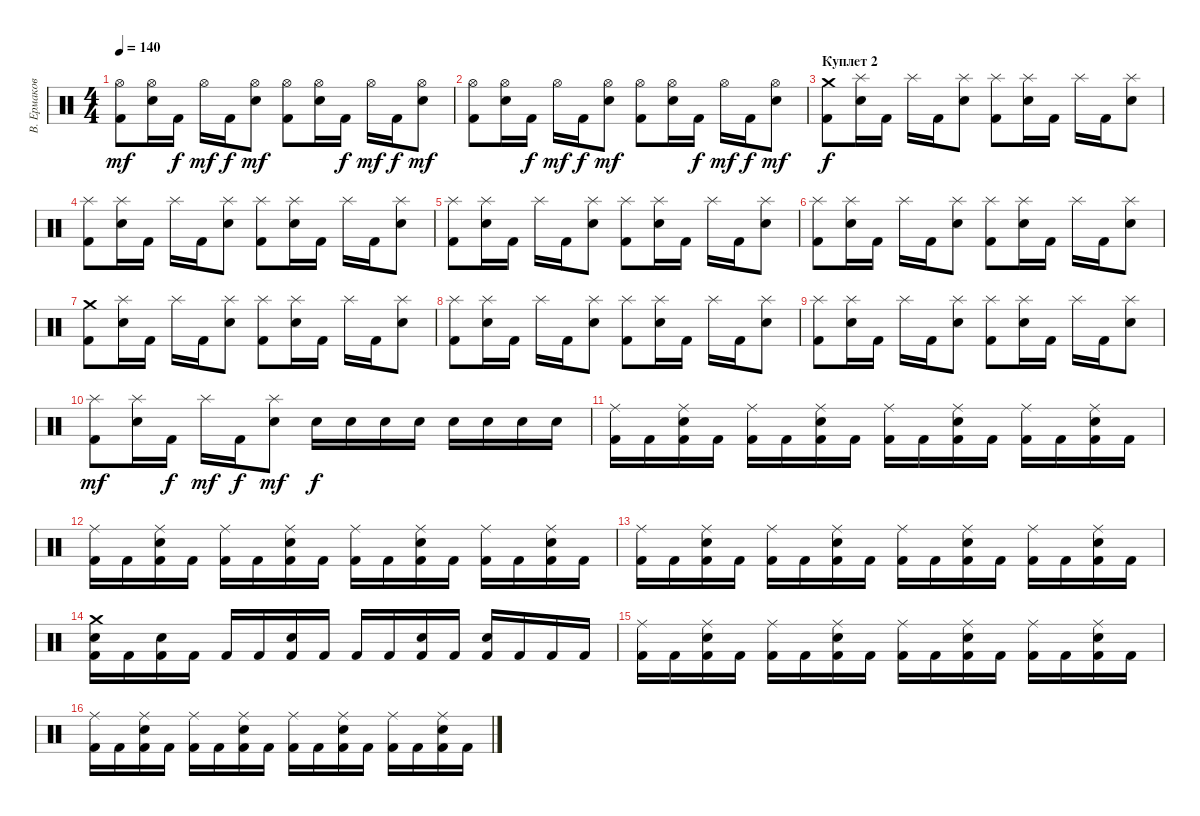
\track ("В. Ермаков" "В. Ермаков") {instrument percussion}
\staff {score}
\articulation defaults
\ts (4 4)
\tempo 140
\clef neutral
\ks c
("Hi-Hat (open)" "Kick (hit) 2").8{dy mf} ("Hi-Hat (open)" "Electric Snare (hit)").16 "Kick (hit) 2".16{dy f} "Hi-Hat (open)".16{dy mf} "Kick (hit) 2".16{dy f} ("Hi-Hat (open)" "Electric Snare (hit)").8{dy mf} ("Hi-Hat (open)" "Kick (hit) 2").8 ("Hi-Hat (open)" "Electric Snare (hit)").16 "Kick (hit) 2".16{dy f} "Hi-Hat (open)".16{dy mf} "Kick (hit) 2".16{dy f} ("Hi-Hat (open)" "Electric Snare (hit)").8{dy mf} |
("Hi-Hat (open)" "Kick (hit) 2").8 ("Hi-Hat (open)" "Electric Snare (hit)").16 "Kick (hit) 2".16{dy f} "Hi-Hat (open)".16{dy mf} "Kick (hit) 2".16{dy f} ("Hi-Hat (open)" "Electric Snare (hit)").8{dy mf} ("Hi-Hat (open)" "Kick (hit) 2").8 ("Hi-Hat (open)" "Electric Snare (hit)").16 "Kick (hit) 2".16{dy f} "Hi-Hat (open)".16{dy mf} "Kick (hit) 2".16{dy f} ("Hi-Hat (open)" "Electric Snare (hit)").8{dy mf} |
\section ("" "Куплет 2")
("Crash medium (hit)" "Kick (hit) 2").8{dy f} ("Splash (hit)" "Electric Snare (hit)").16 "Kick (hit) 2".16 "Splash (hit)".16 "Kick (hit) 2".16 ("Splash (hit)" "Electric Snare (hit)").8 ("Splash (hit)" "Kick (hit) 2").8 ("Splash (hit)" "Electric Snare (hit)").16 "Kick (hit) 2".16 "Splash (hit)".16 "Kick (hit) 2".16 ("Splash (hit)" "Electric Snare (hit)").8 |
("Splash (hit)" "Kick (hit) 2").8 ("Splash (hit)" "Electric Snare (hit)").16 "Kick (hit) 2".16 "Splash (hit)".16 "Kick (hit) 2".16 ("Splash (hit)" "Electric Snare (hit)").8 ("Splash (hit)" "Kick (hit) 2").8 ("Splash (hit)" "Electric Snare (hit)").16 "Kick (hit) 2".16 "Splash (hit)".16 "Kick (hit) 2".16 ("Splash (hit)" "Electric Snare (hit)").8 |
("Splash (hit)" "Kick (hit) 2").8 ("Splash (hit)" "Electric Snare (hit)").16 "Kick (hit) 2".16 "Splash (hit)".16 "Kick (hit) 2".16 ("Splash (hit)" "Electric Snare (hit)").8 ("Splash (hit)" "Kick (hit) 2").8 ("Splash (hit)" "Electric Snare (hit)").16 "Kick (hit) 2".16 "Splash (hit)".16 "Kick (hit) 2".16 ("Splash (hit)" "Electric Snare (hit)").8 |
("Splash (hit)" "Kick (hit) 2").8 ("Splash (hit)" "Electric Snare (hit)").16 "Kick (hit) 2".16 "Splash (hit)".16 "Kick (hit) 2".16 ("Splash (hit)" "Electric Snare (hit)").8 ("Splash (hit)" "Kick (hit) 2").8 ("Splash (hit)" "Electric Snare (hit)").16 "Kick (hit) 2".16 "Splash (hit)".16 "Kick (hit) 2".16 ("Splash (hit)" "Electric Snare (hit)").8 |
("Crash medium (hit)" "Kick (hit) 2").8 ("Splash (hit)" "Electric Snare (hit)").16 "Kick (hit) 2".16 "Splash (hit)".16 "Kick (hit) 2".16 ("Splash (hit)" "Electric Snare (hit)").8 ("Splash (hit)" "Kick (hit) 2").8 ("Splash (hit)" "Electric Snare (hit)").16 "Kick (hit) 2".16 "Splash (hit)".16 "Kick (hit) 2".16 ("Splash (hit)" "Electric Snare (hit)").8 |
("Splash (hit)" "Kick (hit) 2").8 ("Splash (hit)" "Electric Snare (hit)").16 "Kick (hit) 2".16 "Splash (hit)".16 "Kick (hit) 2".16 ("Splash (hit)" "Electric Snare (hit)").8 ("Splash (hit)" "Kick (hit) 2").8 ("Splash (hit)" "Electric Snare (hit)").16 "Kick (hit) 2".16 "Splash (hit)".16 "Kick (hit) 2".16 ("Splash (hit)" "Electric Snare (hit)").8 |
("Splash (hit)" "Kick (hit) 2").8 ("Splash (hit)" "Electric Snare (hit)").16 "Kick (hit) 2".16 "Splash (hit)".16 "Kick (hit) 2".16 ("Splash (hit)" "Electric Snare (hit)").8 ("Splash (hit)" "Kick (hit) 2").8 ("Splash (hit)" "Electric Snare (hit)").16 "Kick (hit) 2".16 "Splash (hit)".16 "Kick (hit) 2".16 ("Splash (hit)" "Electric Snare (hit)").8 |
("Splash (hit)" "Kick (hit) 2").8{dy mf} ("Splash (hit)" "Electric Snare (hit)").16 "Kick (hit) 2".16{dy f} "Splash (hit)".16{dy mf} "Kick (hit) 2".16{dy f} ("Splash (hit)" "Electric Snare (hit)").8{dy mf} "Electric Snare (hit)".16{dy f} "Electric Snare (hit)".16 "Electric Snare (hit)".16 "Electric Snare (hit)".16 "Electric Snare (hit)".16 "Electric Snare (hit)".16 "Electric Snare (hit)".16 "Electric Snare (hit)".16 |
("Kick (hit) 2" "Ride (middle)").16 "Kick (hit) 2".16 ("Kick (hit) 2" "Electric Snare (hit)" "Ride (middle)").16 "Kick (hit) 2".16 ("Kick (hit) 2" "Ride (middle)").16 "Kick (hit) 2".16 ("Kick (hit) 2" "Electric Snare (hit)" "Ride (middle)").16 "Kick (hit) 2".16 ("Kick (hit) 2" "Ride (middle)").16 "Kick (hit) 2".16 ("Kick (hit) 2" "Electric Snare (hit)" "Ride (middle)").16 "Kick (hit) 2".16 ("Kick (hit) 2" "Ride (middle)").16 "Kick (hit) 2".16 ("Kick (hit) 2" "Electric Snare (hit)" "Ride (middle)").16 "Kick (hit) 2".16 |
("Kick (hit) 2" "Ride (middle)").16 "Kick (hit) 2".16 ("Kick (hit) 2" "Electric Snare (hit)" "Ride (middle)").16 "Kick (hit) 2".16 ("Kick (hit) 2" "Ride (middle)").16 "Kick (hit) 2".16 ("Kick (hit) 2" "Electric Snare (hit)" "Ride (middle)").16 "Kick (hit) 2".16 ("Kick (hit) 2" "Ride (middle)").16 "Kick (hit) 2".16 ("Kick (hit) 2" "Electric Snare (hit)" "Ride (middle)").16 "Kick (hit) 2".16 ("Kick (hit) 2" "Ride (middle)").16 "Kick (hit) 2".16 ("Kick (hit) 2" "Electric Snare (hit)" "Ride (middle)").16 "Kick (hit) 2".16 |
("Kick (hit) 2" "Ride (middle)").16 "Kick (hit) 2".16 ("Kick (hit) 2" "Electric Snare (hit)" "Ride (middle)").16 "Kick (hit) 2".16 ("Kick (hit) 2" "Ride (middle)").16 "Kick (hit) 2".16 ("Kick (hit) 2" "Electric Snare (hit)" "Ride (middle)").16 "Kick (hit) 2".16 ("Kick (hit) 2" "Ride (middle)").16 "Kick (hit) 2".16 ("Kick (hit) 2" "Electric Snare (hit)" "Ride (middle)").16 "Kick (hit) 2".16 ("Kick (hit) 2" "Ride (middle)").16 "Kick (hit) 2".16 ("Kick (hit) 2" "Electric Snare (hit)" "Ride (middle)").16 "Kick (hit) 2".16 |
("Kick (hit) 2" "Electric Snare (hit)" "Crash medium (hit)").16 "Kick (hit) 2".16 ("Kick (hit) 2" "Electric Snare (hit)").16 "Kick (hit) 2".16 "Kick (hit) 2".16 "Kick (hit) 2".16 ("Kick (hit) 2" "Electric Snare (hit)").16 "Kick (hit) 2".16 "Kick (hit) 2".16 "Kick (hit) 2".16 ("Kick (hit) 2" "Electric Snare (hit)").16 "Kick (hit) 2".16 ("Kick (hit) 2" "Electric Snare (hit)").16 "Kick (hit) 2".16 "Kick (hit) 2".16 "Kick (hit) 2".16 |
("Kick (hit) 2" "Ride (middle)").16 "Kick (hit) 2".16 ("Kick (hit) 2" "Electric Snare (hit)" "Ride (middle)").16 "Kick (hit) 2".16 ("Kick (hit) 2" "Ride (middle)").16 "Kick (hit) 2".16 ("Kick (hit) 2" "Electric Snare (hit)" "Ride (middle)").16 "Kick (hit) 2".16 ("Kick (hit) 2" "Ride (middle)").16 "Kick (hit) 2".16 ("Kick (hit) 2" "Electric Snare (hit)" "Ride (middle)").16 "Kick (hit) 2".16 ("Kick (hit) 2" "Ride (middle)").16 "Kick (hit) 2".16 ("Kick (hit) 2" "Electric Snare (hit)" "Ride (middle)").16 "Kick (hit) 2".16 |
("Kick (hit) 2" "Ride (middle)").16 "Kick (hit) 2".16 ("Kick (hit) 2" "Electric Snare (hit)" "Ride (middle)").16 "Kick (hit) 2".16 ("Kick (hit) 2" "Ride (middle)").16 "Kick (hit) 2".16 ("Kick (hit) 2" "Electric Snare (hit)" "Ride (middle)").16 "Kick (hit) 2".16 ("Kick (hit) 2" "Ride (middle)").16 "Kick (hit) 2".16 ("Kick (hit) 2" "Electric Snare (hit)" "Ride (middle)").16 "Kick (hit) 2".16 ("Kick (hit) 2" "Ride (middle)").16 "Kick (hit) 2".16 ("Kick (hit) 2" "Electric Snare (hit)" "Ride (middle)").16 "Kick (hit) 2".16
